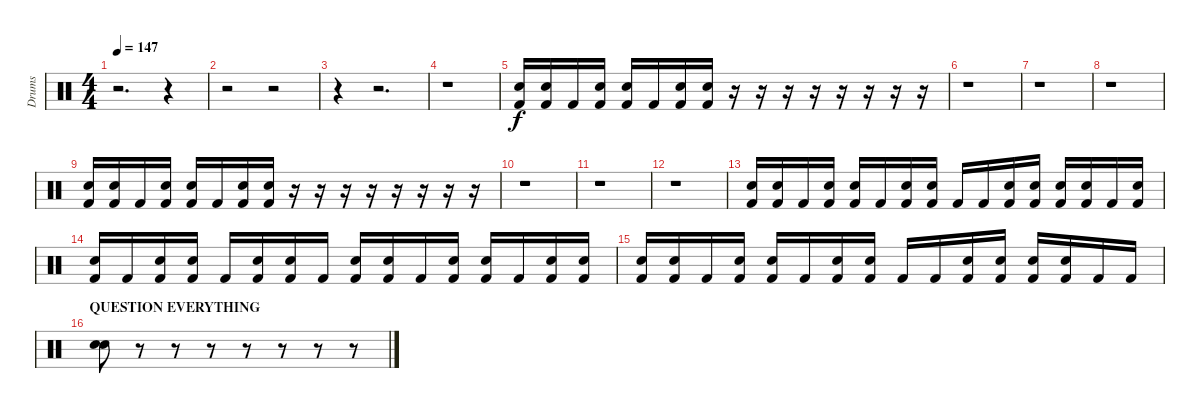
\track ("Drums" "Drums") {instrument percussion}
\staff {score}
\articulation defaults
\ts (4 4)
\tempo 147
\clef neutral
\ks c
r.2{d dy f} r.4 |
r.2 r.2 |
r.4 r.2{d} |
r.1 |
("Electric Snare (hit)" "Kick (hit) 2").16 ("Electric Snare (hit)" "Kick (hit) 2").16 "Kick (hit) 2".16 ("Electric Snare (hit)" "Kick (hit) 2").16 ("Electric Snare (hit)" "Kick (hit) 2").16 "Kick (hit) 2".16 ("Electric Snare (hit)" "Kick (hit) 2").16 ("Electric Snare (hit)" "Kick (hit) 2").16 r.16 r.16 r.16 r.16 r.16 r.16 r.16 r.16 |
r.1 |
r.1 |
r.1 |
("Electric Snare (hit)" "Kick (hit) 2").16 ("Electric Snare (hit)" "Kick (hit) 2").16 "Kick (hit) 2".16 ("Electric Snare (hit)" "Kick (hit) 2").16 ("Electric Snare (hit)" "Kick (hit) 2").16 "Kick (hit) 2".16 ("Electric Snare (hit)" "Kick (hit) 2").16 ("Electric Snare (hit)" "Kick (hit) 2").16 r.16 r.16 r.16 r.16 r.16 r.16 r.16 r.16 |
r.1 |
r.1 |
r.1 |
("Electric Snare (hit)" "Kick (hit) 2").16 ("Electric Snare (hit)" "Kick (hit) 2").16 "Kick (hit) 2".16 ("Electric Snare (hit)" "Kick (hit) 2").16 ("Electric Snare (hit)" "Kick (hit) 2").16 "Kick (hit) 2".16 ("Electric Snare (hit)" "Kick (hit) 2").16 ("Electric Snare (hit)" "Kick (hit) 2").16 "Kick (hit) 2".16 "Kick (hit) 2".16 ("Electric Snare (hit)" "Kick (hit) 2").16 ("Electric Snare (hit)" "Kick (hit) 2").16 ("Electric Snare (hit)" "Kick (hit) 2").16 ("Electric Snare (hit)" "Kick (hit) 2").16 "Kick (hit) 2".16 ("Electric Snare (hit)" "Kick (hit) 2").16 |
("Electric Snare (hit)" "Kick (hit) 2").16 "Kick (hit) 2".16 ("Electric Snare (hit)" "Kick (hit) 2").16 ("Electric Snare (hit)" "Kick (hit) 2").16 "Kick (hit) 2".16 ("Electric Snare (hit)" "Kick (hit) 2").16 ("Electric Snare (hit)" "Kick (hit) 2").16 "Kick (hit) 2".16 ("Electric Snare (hit)" "Kick (hit) 2").16 ("Electric Snare (hit)" "Kick (hit) 2").16 "Kick (hit) 2".16 ("Electric Snare (hit)" "Kick (hit) 2").16 ("Electric Snare (hit)" "Kick (hit) 2").16 "Kick (hit) 2".16 ("Electric Snare (hit)" "Kick (hit) 2").16 ("Electric Snare (hit)" "Kick (hit) 2").16 |
("Electric Snare (hit)" "Kick (hit) 2").16 ("Electric Snare (hit)" "Kick (hit) 2").16 "Kick (hit) 2".16 ("Electric Snare (hit)" "Kick (hit) 2").16 ("Electric Snare (hit)" "Kick (hit) 2").16 "Kick (hit) 2".16 ("Electric Snare (hit)" "Kick (hit) 2").16 ("Electric Snare (hit)" "Kick (hit) 2").16 "Kick (hit) 2".16 "Kick (hit) 2".16 ("Electric Snare (hit)" "Kick (hit) 2").16 ("Electric Snare (hit)" "Kick (hit) 2").16 ("Electric Snare (hit)" "Kick (hit) 2").16 ("Electric Snare (hit)" "Kick (hit) 2").16 "Kick (hit) 2".16 "Kick (hit) 2".16 |
\section ("" "QUESTION EVERYTHING")
("Electric Snare (hit)" "Electric Snare (hit)").8 r.8 r.8 r.8 r.8 r.8 r.8 r.8
